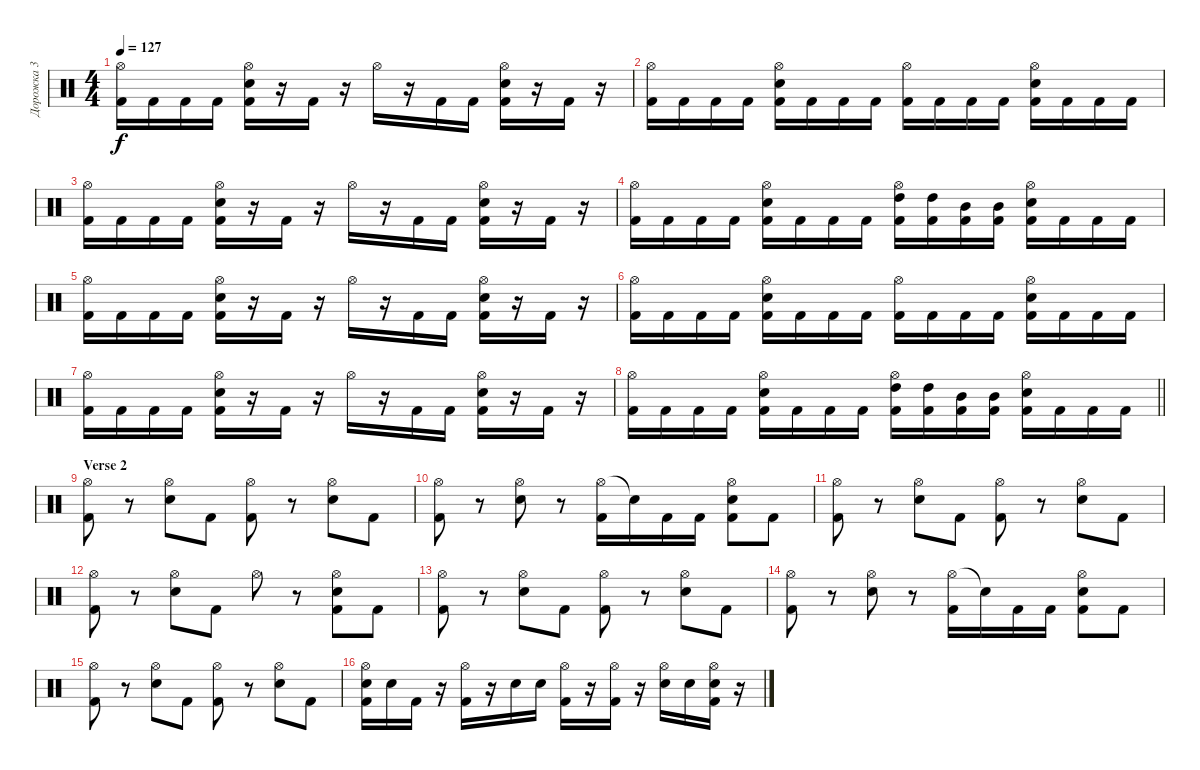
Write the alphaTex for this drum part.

\track ("Дорожка 3" "Дорожка 3") {instrument percussion}
\staff {score}
\articulation defaults
\ts (4 4)
\tempo 127
\clef neutral
\ks c
("Hi-Hat (open)" "Kick (hit) 2").16{dy f} "Kick (hit) 2".16 "Kick (hit) 2".16 "Kick (hit) 2".16 ("Hi-Hat (open)" "Electric Snare (hit)" "Kick (hit) 2").16 r.16 "Kick (hit) 2".16 r.16 "Hi-Hat (open)".16 r.16 "Kick (hit) 2".16 "Kick (hit) 2".16 ("Hi-Hat (open)" "Electric Snare (hit)" "Kick (hit) 2").16 r.16 "Kick (hit) 2".16 r.16 |
("Hi-Hat (open)" "Kick (hit) 2").16 "Kick (hit) 2".16 "Kick (hit) 2".16 "Kick (hit) 2".16 ("Hi-Hat (open)" "Electric Snare (hit)" "Kick (hit) 2").16 "Kick (hit) 2".16 "Kick (hit) 2".16 "Kick (hit) 2".16 ("Hi-Hat (open)" "Kick (hit) 2").16 "Kick (hit) 2".16 "Kick (hit) 2".16 "Kick (hit) 2".16 ("Hi-Hat (open)" "Electric Snare (hit)" "Kick (hit) 2").16 "Kick (hit) 2".16 "Kick (hit) 2".16 "Kick (hit) 2".16 |
("Hi-Hat (open)" "Kick (hit) 2").16 "Kick (hit) 2".16 "Kick (hit) 2".16 "Kick (hit) 2".16 ("Hi-Hat (open)" "Electric Snare (hit)" "Kick (hit) 2").16 r.16 "Kick (hit) 2".16 r.16 "Hi-Hat (open)".16 r.16 "Kick (hit) 2".16 "Kick (hit) 2".16 ("Hi-Hat (open)" "Electric Snare (hit)" "Kick (hit) 2").16 r.16 "Kick (hit) 2".16 r.16 |
("Hi-Hat (open)" "Kick (hit) 2").16 "Kick (hit) 2".16 "Kick (hit) 2".16 "Kick (hit) 2".16 ("Hi-Hat (open)" "Electric Snare (hit)" "Kick (hit) 2").16 "Kick (hit) 2".16 "Kick (hit) 2".16 "Kick (hit) 2".16 ("Hi-Hat (open)" "High Tom (hit)" "Kick (hit) 2").16 ("High Tom (hit)" "Kick (hit) 2").16 ("Mid Tom (hit)" "Kick (hit) 2").16 ("Mid Tom (hit)" "Kick (hit) 2").16 ("Hi-Hat (open)" "Electric Snare (hit)" "Kick (hit) 2").16 "Kick (hit) 2".16 "Kick (hit) 2".16 "Kick (hit) 2".16 |
("Hi-Hat (open)" "Kick (hit) 2").16 "Kick (hit) 2".16 "Kick (hit) 2".16 "Kick (hit) 2".16 ("Hi-Hat (open)" "Electric Snare (hit)" "Kick (hit) 2").16 r.16 "Kick (hit) 2".16 r.16 "Hi-Hat (open)".16 r.16 "Kick (hit) 2".16 "Kick (hit) 2".16 ("Hi-Hat (open)" "Electric Snare (hit)" "Kick (hit) 2").16 r.16 "Kick (hit) 2".16 r.16 |
("Hi-Hat (open)" "Kick (hit) 2").16 "Kick (hit) 2".16 "Kick (hit) 2".16 "Kick (hit) 2".16 ("Hi-Hat (open)" "Electric Snare (hit)" "Kick (hit) 2").16 "Kick (hit) 2".16 "Kick (hit) 2".16 "Kick (hit) 2".16 ("Hi-Hat (open)" "Kick (hit) 2").16 "Kick (hit) 2".16 "Kick (hit) 2".16 "Kick (hit) 2".16 ("Hi-Hat (open)" "Electric Snare (hit)" "Kick (hit) 2").16 "Kick (hit) 2".16 "Kick (hit) 2".16 "Kick (hit) 2".16 |
("Hi-Hat (open)" "Kick (hit) 2").16 "Kick (hit) 2".16 "Kick (hit) 2".16 "Kick (hit) 2".16 ("Hi-Hat (open)" "Electric Snare (hit)" "Kick (hit) 2").16 r.16 "Kick (hit) 2".16 r.16 "Hi-Hat (open)".16 r.16 "Kick (hit) 2".16 "Kick (hit) 2".16 ("Hi-Hat (open)" "Electric Snare (hit)" "Kick (hit) 2").16 r.16 "Kick (hit) 2".16 r.16 |
\barLineRight lightlight
("Hi-Hat (open)" "Kick (hit) 2").16 "Kick (hit) 2".16 "Kick (hit) 2".16 "Kick (hit) 2".16 ("Hi-Hat (open)" "Electric Snare (hit)" "Kick (hit) 2").16 "Kick (hit) 2".16 "Kick (hit) 2".16 "Kick (hit) 2".16 ("Hi-Hat (open)" "High Tom (hit)" "Kick (hit) 2").16 ("High Tom (hit)" "Kick (hit) 2").16 ("Mid Tom (hit)" "Kick (hit) 2").16 ("Mid Tom (hit)" "Kick (hit) 2").16 ("Hi-Hat (open)" "Electric Snare (hit)" "Kick (hit) 2").16 "Kick (hit) 2".16 "Kick (hit) 2".16 "Kick (hit) 2".16 |
\section ("" "Verse 2")
("Hi-Hat (open)" "Kick (hit) 2").8 r.8 ("Hi-Hat (open)" "Electric Snare (hit)").8 "Kick (hit) 2".8 ("Hi-Hat (open)" "Kick (hit) 2").8 r.8 ("Hi-Hat (open)" "Electric Snare (hit)").8 "Kick (hit) 2".8 |
("Hi-Hat (open)" "Kick (hit) 2").8 r.8 ("Hi-Hat (open)" "Electric Snare (hit)").8 r.8 ("Hi-Hat (open)" "Kick (hit) 2").16 "Snare (hit)"{t}.16 "Kick (hit) 2".16 "Kick (hit) 2".16 ("Hi-Hat (open)" "Electric Snare (hit)" "Kick (hit) 2").8 "Kick (hit) 2".8 |
("Hi-Hat (open)" "Kick (hit) 2").8 r.8 ("Hi-Hat (open)" "Electric Snare (hit)").8 "Kick (hit) 2".8 ("Hi-Hat (open)" "Kick (hit) 2").8 r.8 ("Hi-Hat (open)" "Electric Snare (hit)").8 "Kick (hit) 2".8 |
("Hi-Hat (open)" "Kick (hit) 2").8 r.8 ("Hi-Hat (open)" "Electric Snare (hit)").8 "Kick (hit) 2".8 "Hi-Hat (open)".8 r.8 ("Hi-Hat (open)" "Electric Snare (hit)" "Kick (hit) 2").8 "Kick (hit) 2".8 |
("Hi-Hat (open)" "Kick (hit) 2").8 r.8 ("Hi-Hat (open)" "Electric Snare (hit)").8 "Kick (hit) 2".8 ("Hi-Hat (open)" "Kick (hit) 2").8 r.8 ("Hi-Hat (open)" "Electric Snare (hit)").8 "Kick (hit) 2".8 |
("Hi-Hat (open)" "Kick (hit) 2").8 r.8 ("Hi-Hat (open)" "Electric Snare (hit)").8 r.8 ("Hi-Hat (open)" "Kick (hit) 2").16 "Snare (hit)"{t}.16 "Kick (hit) 2".16 "Kick (hit) 2".16 ("Hi-Hat (open)" "Electric Snare (hit)" "Kick (hit) 2").8 "Kick (hit) 2".8 |
("Hi-Hat (open)" "Kick (hit) 2").8 r.8 ("Hi-Hat (open)" "Electric Snare (hit)").8 "Kick (hit) 2".8 ("Hi-Hat (open)" "Kick (hit) 2").8 r.8 ("Hi-Hat (open)" "Electric Snare (hit)").8 "Kick (hit) 2".8 |
("Hi-Hat (open)" "Electric Snare (hit)" "Kick (hit) 2").16 "Electric Snare (hit)".16 "Kick (hit) 2".16 r.16 ("Hi-Hat (open)" "Kick (hit) 2").16 r.16 "Electric Snare (hit)".16 "Electric Snare (hit)".16 ("Hi-Hat (open)" "Kick (hit) 2").16 r.16 ("Hi-Hat (open)" "Kick (hit) 2").16 r.16 ("Hi-Hat (open)" "Electric Snare (hit)").16 "Electric Snare (hit)".16 ("Hi-Hat (open)" "Electric Snare (hit)" "Kick (hit) 2").16 r.16
